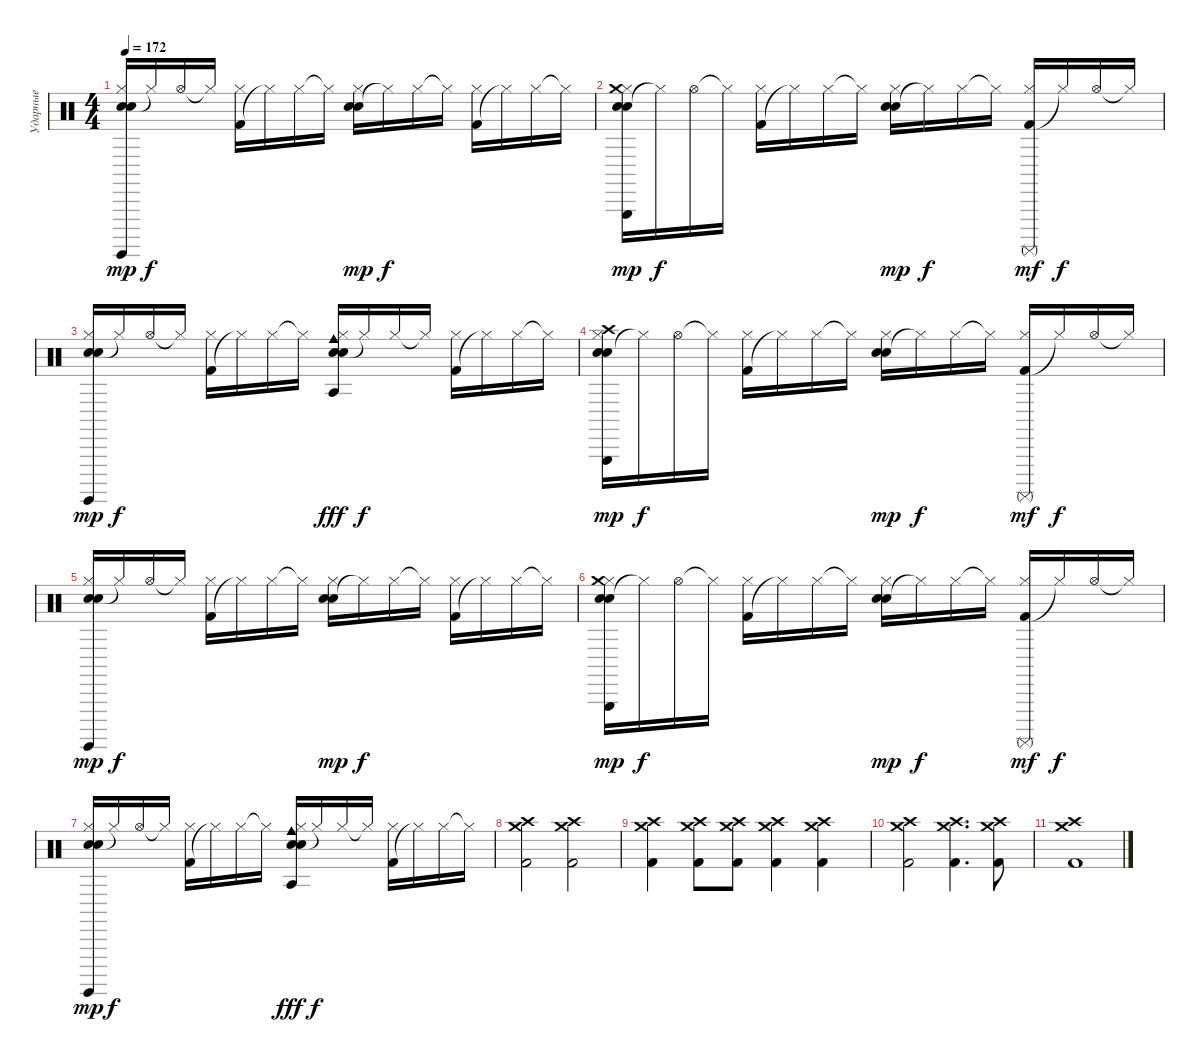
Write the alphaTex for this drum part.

\track ("Ударные" "Ударные") {instrument percussion}
\staff {score}
\articulation defaults
\ts (4 4)
\tempo 172
\clef neutral
\ks c
("Snare (hit) 2" "Electric Snare (hit)" "Hi-Hat (closed)" "Surdo (hit)").16{dy mp} "Hi-Hat (closed)"{t}.16{dy f} "Hi-Hat (open)".16 "Hi-Hat (closed)"{t}.16 ("Kick (hit) 2" "Hi-Hat (closed)").16 "Hi-Hat (closed)"{t}.16 "Hi-Hat (closed)".16 "Hi-Hat (closed)"{t}.16 ("Snare (hit) 2" "Electric Snare (hit)" "Hi-Hat (closed)").16{dy mp} "Hi-Hat (closed)"{t}.16{dy f} "Hi-Hat (closed)".16 "Hi-Hat (closed)"{t}.16 ("Kick (hit) 2" "Hi-Hat (closed)").16 "Hi-Hat (closed)"{t}.16 "Hi-Hat (closed)".16 "Hi-Hat (closed)"{t}.16 |
("Snare (hit) 2" "Electric Snare (hit)" "Hi-Hat (closed)" "Triangle (hit)" "Crash medium (hit)").16{dy mp} "Hi-Hat (closed)"{t}.16{dy f} "Hi-Hat (open)".16 "Hi-Hat (closed)"{t}.16 ("Kick (hit) 2" "Hi-Hat (closed)").16 "Hi-Hat (closed)"{t}.16 "Hi-Hat (closed)".16 "Hi-Hat (closed)"{t}.16 ("Snare (hit) 2" "Electric Snare (hit)" "Hi-Hat (closed)").16{dy mp} "Hi-Hat (closed)"{t}.16{dy f} "Hi-Hat (closed)".16 "Hi-Hat (closed)"{t}.16 ("Kick (hit) 2" "Hi-Hat (closed)" "Surdo (mute)").16{dy mf} "Hi-Hat (closed)"{t}.16{dy f} "Hi-Hat (open)".16 "Hi-Hat (closed)"{t}.16 |
("Snare (hit) 2" "Electric Snare (hit)" "Hi-Hat (closed)" "Surdo (hit)").16{dy mp} "Hi-Hat (closed)"{t}.16{dy f} "Hi-Hat (open)".16 "Hi-Hat (closed)"{t}.16 ("Kick (hit) 2" "Hi-Hat (closed)").16 "Hi-Hat (closed)"{t}.16 "Hi-Hat (closed)".16 "Hi-Hat (closed)"{t}.16 ("Snare (hit) 2" "Electric Snare (hit)" "Hi-Hat (closed)" "Cowbell medium (hit)" "Agogo tow (hit)").16{dy fff} "Hi-Hat (closed)"{t}.16{dy f} "Hi-Hat (closed)".16 "Hi-Hat (closed)"{t}.16 ("Kick (hit) 2" "Hi-Hat (closed)").16 "Hi-Hat (closed)"{t}.16 "Hi-Hat (closed)".16 "Hi-Hat (closed)"{t}.16 |
("Snare (hit) 2" "Electric Snare (hit)" "Hi-Hat (closed)" "Triangle (hit)" "Crash high (hit)").16{dy mp} "Hi-Hat (closed)"{t}.16{dy f} "Hi-Hat (open)".16 "Hi-Hat (closed)"{t}.16 ("Kick (hit) 2" "Hi-Hat (closed)").16 "Hi-Hat (closed)"{t}.16 "Hi-Hat (closed)".16 "Hi-Hat (closed)"{t}.16 ("Snare (hit) 2" "Electric Snare (hit)" "Hi-Hat (closed)").16{dy mp} "Hi-Hat (closed)"{t}.16{dy f} "Hi-Hat (closed)".16 "Hi-Hat (closed)"{t}.16 ("Kick (hit) 2" "Hi-Hat (closed)" "Surdo (mute)").16{dy mf} "Hi-Hat (closed)"{t}.16{dy f} "Hi-Hat (open)".16 "Hi-Hat (closed)"{t}.16 |
("Snare (hit) 2" "Electric Snare (hit)" "Hi-Hat (closed)" "Surdo (hit)").16{dy mp} "Hi-Hat (closed)"{t}.16{dy f} "Hi-Hat (open)".16 "Hi-Hat (closed)"{t}.16 ("Kick (hit) 2" "Hi-Hat (closed)").16 "Hi-Hat (closed)"{t}.16 "Hi-Hat (closed)".16 "Hi-Hat (closed)"{t}.16 ("Snare (hit) 2" "Electric Snare (hit)" "Hi-Hat (closed)").16{dy mp} "Hi-Hat (closed)"{t}.16{dy f} "Hi-Hat (closed)".16 "Hi-Hat (closed)"{t}.16 ("Kick (hit) 2" "Hi-Hat (closed)").16 "Hi-Hat (closed)"{t}.16 "Hi-Hat (closed)".16 "Hi-Hat (closed)"{t}.16 |
("Snare (hit) 2" "Electric Snare (hit)" "Hi-Hat (closed)" "Triangle (hit)" "Crash medium (hit)").16{dy mp} "Hi-Hat (closed)"{t}.16{dy f} "Hi-Hat (open)".16 "Hi-Hat (closed)"{t}.16 ("Kick (hit) 2" "Hi-Hat (closed)").16 "Hi-Hat (closed)"{t}.16 "Hi-Hat (closed)".16 "Hi-Hat (closed)"{t}.16 ("Snare (hit) 2" "Electric Snare (hit)" "Hi-Hat (closed)").16{dy mp} "Hi-Hat (closed)"{t}.16{dy f} "Hi-Hat (closed)".16 "Hi-Hat (closed)"{t}.16 ("Kick (hit) 2" "Hi-Hat (closed)" "Surdo (mute)").16{dy mf} "Hi-Hat (closed)"{t}.16{dy f} "Hi-Hat (open)".16 "Hi-Hat (closed)"{t}.16 |
("Snare (hit) 2" "Electric Snare (hit)" "Hi-Hat (closed)" "Surdo (hit)").16{dy mp} "Hi-Hat (closed)"{t}.16{dy f} "Hi-Hat (open)".16 "Hi-Hat (closed)"{t}.16 ("Kick (hit) 2" "Hi-Hat (closed)").16 "Hi-Hat (closed)"{t}.16 "Hi-Hat (closed)".16 "Hi-Hat (closed)"{t}.16 ("Snare (hit) 2" "Electric Snare (hit)" "Hi-Hat (closed)" "Cowbell medium (hit)" "Agogo tow (hit)").16{dy fff} "Hi-Hat (closed)"{t}.16{dy f} "Hi-Hat (closed)".16 "Hi-Hat (closed)"{t}.16 ("Kick (hit) 2" "Hi-Hat (closed)").16 "Hi-Hat (closed)"{t}.16 "Hi-Hat (closed)".16 "Hi-Hat (closed)"{t}.16 |
("Kick (hit) 2" "Crash medium (hit)" "Crash high (hit)").2 ("Kick (hit) 2" "Crash medium (hit)" "Crash high (hit)").2 |
("Kick (hit) 2" "Crash medium (hit)" "Crash high (hit)").4 ("Kick (hit) 2" "Crash medium (hit)" "Crash high (hit)").8 ("Kick (hit) 2" "Crash medium (hit)" "Crash high (hit)").8 ("Kick (hit) 2" "Crash medium (hit)" "Crash high (hit)").4 ("Kick (hit) 2" "Crash medium (hit)" "Crash high (hit)").4 |
("Kick (hit) 2" "Crash medium (hit)" "Crash high (hit)").2 ("Kick (hit) 2" "Crash medium (hit)" "Crash high (hit)").4{d} ("Kick (hit) 2" "Crash medium (hit)" "Crash high (hit)").8 |
("Kick (hit) 2" "Crash medium (hit)" "Crash high (hit)").1
